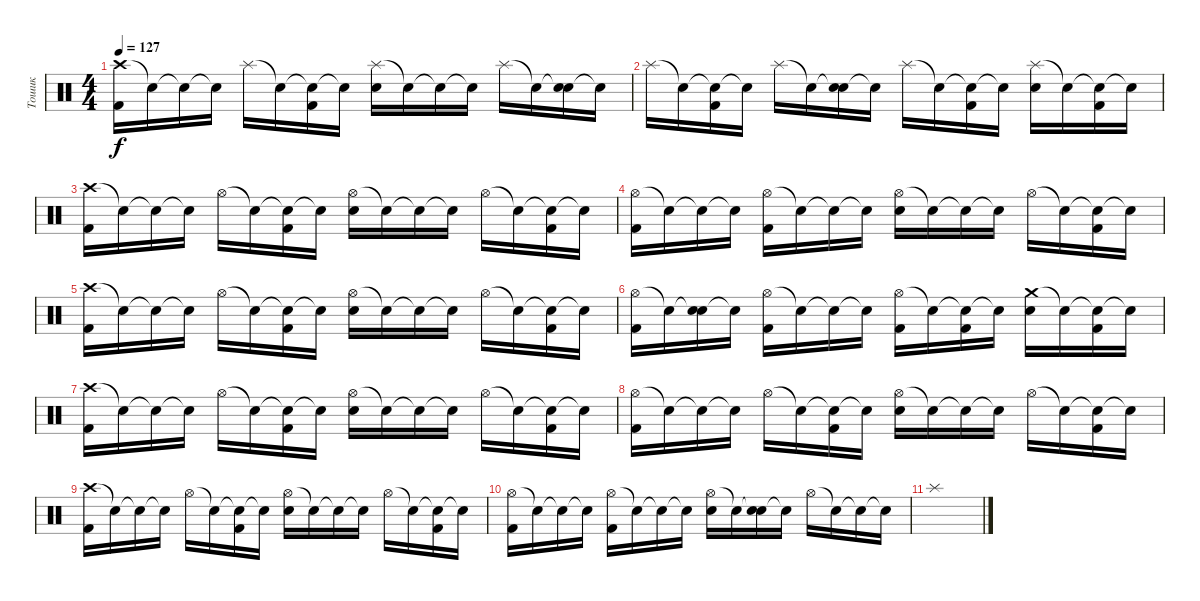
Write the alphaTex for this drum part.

\track ("Тошик" "Тошик") {instrument percussion}
\staff {score}
\articulation defaults
\ts (4 4)
\tempo 127
\clef neutral
\ks c
("Crash high (hit)" "Kick (hit) 2").16{dy f} "Snare (hit)"{t}.16 "Snare (hit)"{t}.16 "Snare (hit)"{t}.16 "Splash (hit)".16 "Snare (hit)"{t}.16 ("Snare (hit)"{t} "Kick (hit) 2").16 "Snare (hit)"{t}.16 ("Splash (hit)" "Snare (hit) 2").16 "Snare (hit)"{t}.16 "Snare (hit)"{t}.16 "Snare (hit)"{t}.16 "Splash (hit)".16 "Snare (hit)"{t}.16 ("Snare (hit)"{t} "Snare (hit) 2").16 "Snare (hit)"{t}.16 |
"Splash (hit)".16 "Snare (hit)"{t}.16 ("Snare (hit)"{t} "Kick (hit) 2").16 "Snare (hit)"{t}.16 "Splash (hit)".16 "Snare (hit)"{t}.16 ("Snare (hit)"{t} "Snare (hit) 2").16 "Snare (hit)"{t}.16 "Splash (hit)".16 "Snare (hit)"{t}.16 ("Snare (hit)"{t} "Kick (hit) 2").16 "Snare (hit)"{t}.16 ("Splash (hit)" "Snare (hit) 2").16 "Snare (hit)"{t}.16 ("Snare (hit)"{t} "Kick (hit) 2").16 "Snare (hit)"{t}.16 |
("Crash high (hit)" "Kick (hit) 2").16 "Snare (hit)"{t}.16 "Snare (hit)"{t}.16 "Snare (hit)"{t}.16 "Hi-Hat (open)".16 "Snare (hit)"{t}.16 ("Snare (hit)"{t} "Kick (hit) 2").16 "Snare (hit)"{t}.16 ("Hi-Hat (open)" "Snare (hit) 2").16 "Snare (hit)"{t}.16 "Snare (hit)"{t}.16 "Snare (hit)"{t}.16 "Hi-Hat (open)".16 "Snare (hit)"{t}.16 ("Snare (hit)"{t} "Kick (hit) 2").16 "Snare (hit)"{t}.16 |
("Hi-Hat (open)" "Kick (hit) 2").16 "Snare (hit)"{t}.16 "Snare (hit)"{t}.16 "Snare (hit)"{t}.16 ("Hi-Hat (open)" "Kick (hit) 2").16 "Snare (hit)"{t}.16 "Snare (hit)"{t}.16 "Snare (hit)"{t}.16 ("Hi-Hat (open)" "Snare (hit) 2").16 "Snare (hit)"{t}.16 "Snare (hit)"{t}.16 "Snare (hit)"{t}.16 "Hi-Hat (open)".16 "Snare (hit)"{t}.16 ("Snare (hit)"{t} "Kick (hit) 2").16 "Snare (hit)"{t}.16 |
("Crash high (hit)" "Kick (hit) 2").16 "Snare (hit)"{t}.16 "Snare (hit)"{t}.16 "Snare (hit)"{t}.16 "Hi-Hat (open)".16 "Snare (hit)"{t}.16 ("Snare (hit)"{t} "Kick (hit) 2").16 "Snare (hit)"{t}.16 ("Hi-Hat (open)" "Snare (hit) 2").16 "Snare (hit)"{t}.16 "Snare (hit)"{t}.16 "Snare (hit)"{t}.16 "Hi-Hat (open)".16 "Snare (hit)"{t}.16 ("Snare (hit)"{t} "Kick (hit) 2").16 "Snare (hit)"{t}.16 |
("Hi-Hat (open)" "Kick (hit) 2").16 "Snare (hit)"{t}.16 ("Snare (hit)"{t} "Snare (hit) 2").16 "Snare (hit)"{t}.16 ("Hi-Hat (open)" "Kick (hit) 2").16 "Snare (hit)"{t}.16 "Snare (hit)"{t}.16 "Snare (hit)"{t}.16 ("Hi-Hat (open)" "Kick (hit) 2").16 "Snare (hit)"{t}.16 ("Snare (hit)"{t} "Kick (hit) 2").16 "Snare (hit)"{t}.16 ("Crash medium (hit)" "Snare (hit) 2").16 "Snare (hit)"{t}.16 ("Snare (hit)"{t} "Kick (hit) 2").16 "Snare (hit)"{t}.16 |
("Crash high (hit)" "Kick (hit) 2").16 "Snare (hit)"{t}.16 "Snare (hit)"{t}.16 "Snare (hit)"{t}.16 "Hi-Hat (open)".16 "Snare (hit)"{t}.16 ("Snare (hit)"{t} "Kick (hit) 2").16 "Snare (hit)"{t}.16 ("Hi-Hat (open)" "Snare (hit) 2").16 "Snare (hit)"{t}.16 "Snare (hit)"{t}.16 "Snare (hit)"{t}.16 "Hi-Hat (open)".16 "Snare (hit)"{t}.16 ("Snare (hit)"{t} "Kick (hit) 2").16 "Snare (hit)"{t}.16 |
("Hi-Hat (open)" "Kick (hit) 2").16 "Snare (hit)"{t}.16 "Snare (hit)"{t}.16 "Snare (hit)"{t}.16 "Hi-Hat (open)".16 "Snare (hit)"{t}.16 ("Snare (hit)"{t} "Kick (hit) 2").16 "Snare (hit)"{t}.16 ("Hi-Hat (open)" "Snare (hit) 2").16 "Snare (hit)"{t}.16 "Snare (hit)"{t}.16 "Snare (hit)"{t}.16 "Hi-Hat (open)".16 "Snare (hit)"{t}.16 ("Snare (hit)"{t} "Kick (hit) 2").16 "Snare (hit)"{t}.16 |
("Crash high (hit)" "Kick (hit) 2").16 "Snare (hit)"{t}.16 "Snare (hit)"{t}.16 "Snare (hit)"{t}.16 "Hi-Hat (open)".16 "Snare (hit)"{t}.16 ("Snare (hit)"{t} "Kick (hit) 2").16 "Snare (hit)"{t}.16 ("Hi-Hat (open)" "Snare (hit) 2").16 "Snare (hit)"{t}.16 "Snare (hit)"{t}.16 "Snare (hit)"{t}.16 "Hi-Hat (open)".16 "Snare (hit)"{t}.16 ("Snare (hit)"{t} "Kick (hit) 2").16 "Snare (hit)"{t}.16 |
("Hi-Hat (open)" "Kick (hit) 2").16 "Snare (hit)"{t}.16 "Snare (hit)"{t}.16 "Snare (hit)"{t}.16 ("Hi-Hat (open)" "Kick (hit) 2").16 "Snare (hit)"{t}.16 "Snare (hit)"{t}.16 "Snare (hit)"{t}.16 ("Hi-Hat (open)" "Snare (hit) 2").16 "Snare (hit)"{t}.16 ("Snare (hit)"{t} "Snare (hit) 2").16 "Snare (hit)"{t}.16 "Hi-Hat (open)".16 "Snare (hit)"{t}.16 "Snare (hit)"{t}.16 "Snare (hit)"{t}.16 |
"Splash (hit)".1
